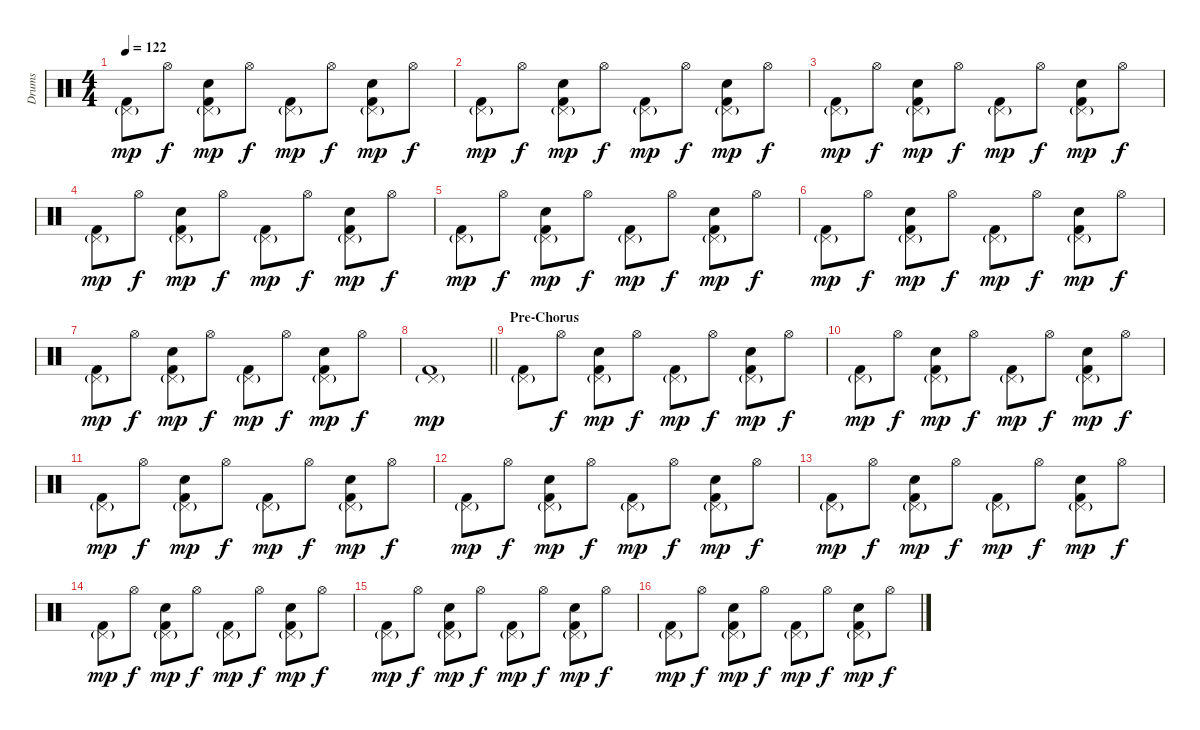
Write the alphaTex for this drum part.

\track ("Drums" "Drums") {instrument percussion}
\staff {score}
\articulation defaults
\ts (4 4)
\tempo 122
\clef neutral
\ks c
("Pedal Hi-Hat (hit)"{g} "Kick (hit) 2").8{dy mp} "Hi-Hat (open)".8{dy f} ("Pedal Hi-Hat (hit)"{g} "Snare (hit) 2" "Kick (hit) 2").8{dy mp} "Hi-Hat (open)".8{dy f} ("Pedal Hi-Hat (hit)"{g} "Kick (hit) 2").8{dy mp} "Hi-Hat (open)".8{dy f} ("Pedal Hi-Hat (hit)"{g} "Snare (hit) 2" "Kick (hit) 2").8{dy mp} "Hi-Hat (open)".8{dy f} |
("Pedal Hi-Hat (hit)"{g} "Kick (hit) 2").8{dy mp} "Hi-Hat (open)".8{dy f} ("Pedal Hi-Hat (hit)"{g} "Snare (hit) 2" "Kick (hit) 2").8{dy mp} "Hi-Hat (open)".8{dy f} ("Pedal Hi-Hat (hit)"{g} "Kick (hit) 2").8{dy mp} "Hi-Hat (open)".8{dy f} ("Pedal Hi-Hat (hit)"{g} "Snare (hit) 2" "Kick (hit) 2").8{dy mp} "Hi-Hat (open)".8{dy f} |
("Pedal Hi-Hat (hit)"{g} "Kick (hit) 2").8{dy mp} "Hi-Hat (open)".8{dy f} ("Pedal Hi-Hat (hit)"{g} "Snare (hit) 2" "Kick (hit) 2").8{dy mp} "Hi-Hat (open)".8{dy f} ("Pedal Hi-Hat (hit)"{g} "Kick (hit) 2").8{dy mp} "Hi-Hat (open)".8{dy f} ("Pedal Hi-Hat (hit)"{g} "Snare (hit) 2" "Kick (hit) 2").8{dy mp} "Hi-Hat (open)".8{dy f} |
("Pedal Hi-Hat (hit)"{g} "Kick (hit) 2").8{dy mp} "Hi-Hat (open)".8{dy f} ("Pedal Hi-Hat (hit)"{g} "Snare (hit) 2" "Kick (hit) 2").8{dy mp} "Hi-Hat (open)".8{dy f} ("Pedal Hi-Hat (hit)"{g} "Kick (hit) 2").8{dy mp} "Hi-Hat (open)".8{dy f} ("Pedal Hi-Hat (hit)"{g} "Snare (hit) 2" "Kick (hit) 2").8{dy mp} "Hi-Hat (open)".8{dy f} |
("Pedal Hi-Hat (hit)"{g} "Kick (hit) 2").8{dy mp} "Hi-Hat (open)".8{dy f} ("Pedal Hi-Hat (hit)"{g} "Snare (hit) 2" "Kick (hit) 2").8{dy mp} "Hi-Hat (open)".8{dy f} ("Pedal Hi-Hat (hit)"{g} "Kick (hit) 2").8{dy mp} "Hi-Hat (open)".8{dy f} ("Pedal Hi-Hat (hit)"{g} "Snare (hit) 2" "Kick (hit) 2").8{dy mp} "Hi-Hat (open)".8{dy f} |
("Pedal Hi-Hat (hit)"{g} "Kick (hit) 2").8{dy mp} "Hi-Hat (open)".8{dy f} ("Pedal Hi-Hat (hit)"{g} "Snare (hit) 2" "Kick (hit) 2").8{dy mp} "Hi-Hat (open)".8{dy f} ("Pedal Hi-Hat (hit)"{g} "Kick (hit) 2").8{dy mp} "Hi-Hat (open)".8{dy f} ("Pedal Hi-Hat (hit)"{g} "Snare (hit) 2" "Kick (hit) 2").8{dy mp} "Hi-Hat (open)".8{dy f} |
("Pedal Hi-Hat (hit)"{g} "Kick (hit) 2").8{dy mp} "Hi-Hat (open)".8{dy f} ("Pedal Hi-Hat (hit)"{g} "Snare (hit) 2" "Kick (hit) 2").8{dy mp} "Hi-Hat (open)".8{dy f} ("Pedal Hi-Hat (hit)"{g} "Kick (hit) 2").8{dy mp} "Hi-Hat (open)".8{dy f} ("Pedal Hi-Hat (hit)"{g} "Snare (hit) 2" "Kick (hit) 2").8{dy mp} "Hi-Hat (open)".8{dy f} |
\barLineRight lightlight
("Pedal Hi-Hat (hit)"{g} "Kick (hit) 2").1{dy mp} |
\section ("" "Pre-Chorus")
("Pedal Hi-Hat (hit)"{g} "Kick (hit) 2").8 "Hi-Hat (open)".8{dy f} ("Pedal Hi-Hat (hit)"{g} "Snare (hit) 2" "Kick (hit) 2").8{dy mp} "Hi-Hat (open)".8{dy f} ("Pedal Hi-Hat (hit)"{g} "Kick (hit) 2").8{dy mp} "Hi-Hat (open)".8{dy f} ("Pedal Hi-Hat (hit)"{g} "Snare (hit) 2" "Kick (hit) 2").8{dy mp} "Hi-Hat (open)".8{dy f} |
("Pedal Hi-Hat (hit)"{g} "Kick (hit) 2").8{dy mp} "Hi-Hat (open)".8{dy f} ("Pedal Hi-Hat (hit)"{g} "Snare (hit) 2" "Kick (hit) 2").8{dy mp} "Hi-Hat (open)".8{dy f} ("Pedal Hi-Hat (hit)"{g} "Kick (hit) 2").8{dy mp} "Hi-Hat (open)".8{dy f} ("Pedal Hi-Hat (hit)"{g} "Snare (hit) 2" "Kick (hit) 2").8{dy mp} "Hi-Hat (open)".8{dy f} |
("Pedal Hi-Hat (hit)"{g} "Kick (hit) 2").8{dy mp} "Hi-Hat (open)".8{dy f} ("Pedal Hi-Hat (hit)"{g} "Snare (hit) 2" "Kick (hit) 2").8{dy mp} "Hi-Hat (open)".8{dy f} ("Pedal Hi-Hat (hit)"{g} "Kick (hit) 2").8{dy mp} "Hi-Hat (open)".8{dy f} ("Pedal Hi-Hat (hit)"{g} "Snare (hit) 2" "Kick (hit) 2").8{dy mp} "Hi-Hat (open)".8{dy f} |
("Pedal Hi-Hat (hit)"{g} "Kick (hit) 2").8{dy mp} "Hi-Hat (open)".8{dy f} ("Pedal Hi-Hat (hit)"{g} "Snare (hit) 2" "Kick (hit) 2").8{dy mp} "Hi-Hat (open)".8{dy f} ("Pedal Hi-Hat (hit)"{g} "Kick (hit) 2").8{dy mp} "Hi-Hat (open)".8{dy f} ("Pedal Hi-Hat (hit)"{g} "Snare (hit) 2" "Kick (hit) 2").8{dy mp} "Hi-Hat (open)".8{dy f} |
("Pedal Hi-Hat (hit)"{g} "Kick (hit) 2").8{dy mp} "Hi-Hat (open)".8{dy f} ("Pedal Hi-Hat (hit)"{g} "Snare (hit) 2" "Kick (hit) 2").8{dy mp} "Hi-Hat (open)".8{dy f} ("Pedal Hi-Hat (hit)"{g} "Kick (hit) 2").8{dy mp} "Hi-Hat (open)".8{dy f} ("Pedal Hi-Hat (hit)"{g} "Snare (hit) 2" "Kick (hit) 2").8{dy mp} "Hi-Hat (open)".8{dy f} |
("Pedal Hi-Hat (hit)"{g} "Kick (hit) 2").8{dy mp} "Hi-Hat (open)".8{dy f} ("Pedal Hi-Hat (hit)"{g} "Snare (hit) 2" "Kick (hit) 2").8{dy mp} "Hi-Hat (open)".8{dy f} ("Pedal Hi-Hat (hit)"{g} "Kick (hit) 2").8{dy mp} "Hi-Hat (open)".8{dy f} ("Pedal Hi-Hat (hit)"{g} "Snare (hit) 2" "Kick (hit) 2").8{dy mp} "Hi-Hat (open)".8{dy f} |
("Pedal Hi-Hat (hit)"{g} "Kick (hit) 2").8{dy mp} "Hi-Hat (open)".8{dy f} ("Pedal Hi-Hat (hit)"{g} "Snare (hit) 2" "Kick (hit) 2").8{dy mp} "Hi-Hat (open)".8{dy f} ("Pedal Hi-Hat (hit)"{g} "Kick (hit) 2").8{dy mp} "Hi-Hat (open)".8{dy f} ("Pedal Hi-Hat (hit)"{g} "Snare (hit) 2" "Kick (hit) 2").8{dy mp} "Hi-Hat (open)".8{dy f} |
("Pedal Hi-Hat (hit)"{g} "Kick (hit) 2").8{dy mp} "Hi-Hat (open)".8{dy f} ("Pedal Hi-Hat (hit)"{g} "Snare (hit) 2" "Kick (hit) 2").8{dy mp} "Hi-Hat (open)".8{dy f} ("Pedal Hi-Hat (hit)"{g} "Kick (hit) 2").8{dy mp} "Hi-Hat (open)".8{dy f} ("Pedal Hi-Hat (hit)"{g} "Snare (hit) 2" "Kick (hit) 2").8{dy mp} "Hi-Hat (open)".8{dy f}
